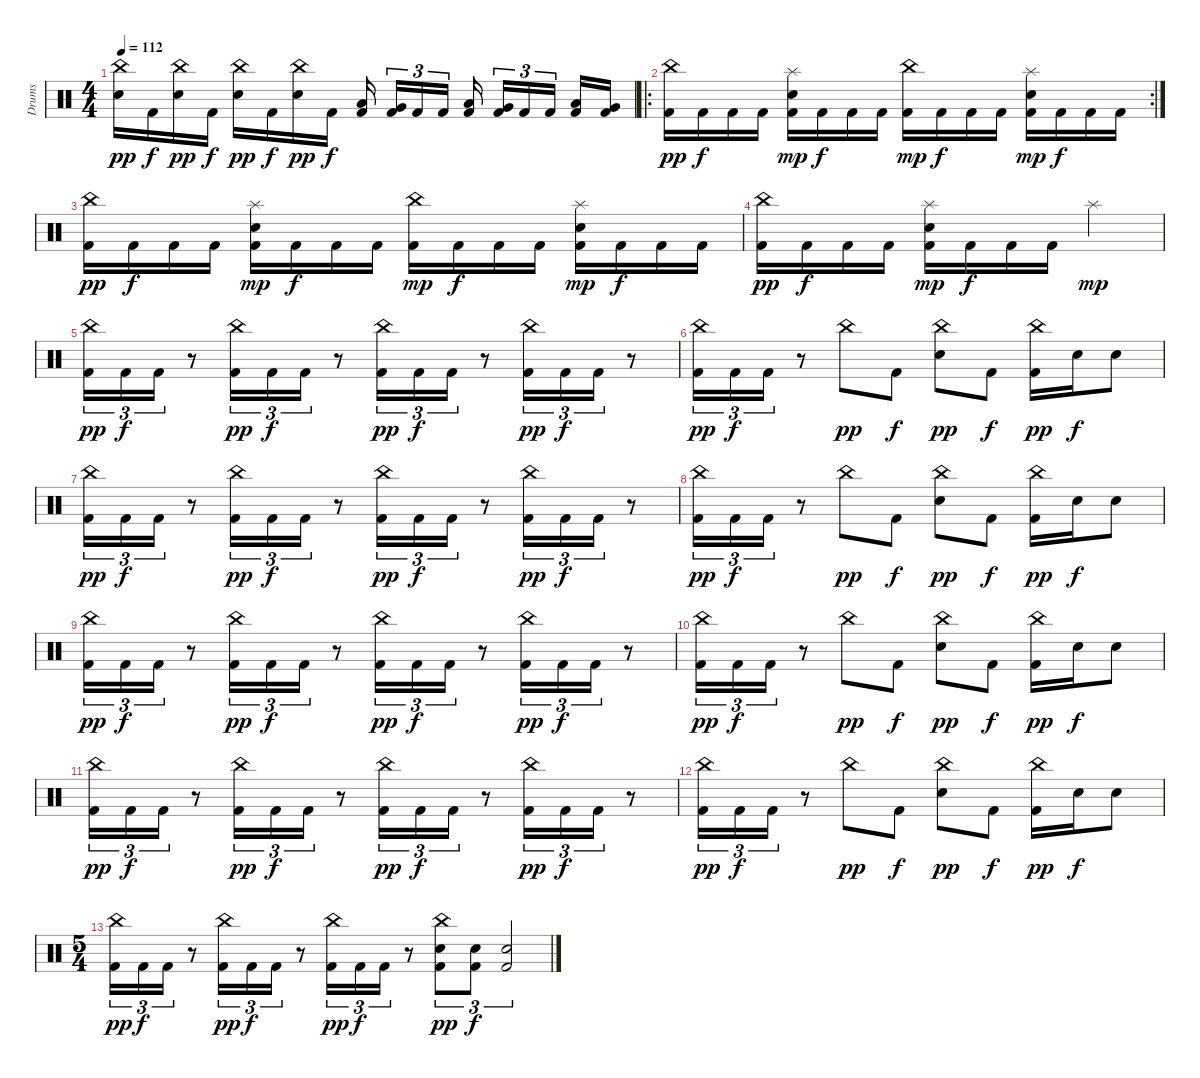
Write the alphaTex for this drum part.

\track ("Drums" "Drums") {instrument percussion}
\staff
\articulation defaults
\ts (4 4)
\tempo 112
\clef neutral
\ks c
("China (hit)" "Snare (hit) 2").16{dy pp} "Kick (hit) 2".16{dy f} ("China (hit)" "Snare (hit) 2").16{dy pp} "Kick (hit) 2".16{dy f} ("China (hit)" "Snare (hit) 2").16{dy pp} "Kick (hit) 2".16{dy f} ("China (hit)" "Snare (hit) 2").16{dy pp} "Kick (hit) 2".16{dy f} ("Low Floor Tom (hit)" "Kick (hit) 2").16{beam splitsecondary} ("Very Low Tom (hit)" "Kick (hit) 2").16{tu (3 2)} "Kick (hit) 2".16{tu (3 2)} "Kick (hit) 2".16{tu (3 2) beam splitsecondary} ("Low Floor Tom (hit)" "Kick (hit) 2").16 ("Very Low Tom (hit)" "Kick (hit) 2").16{tu (3 2)} "Kick (hit) 2".16{tu (3 2)} "Kick (hit) 2".16{tu (3 2) beam splitsecondary} ("Low Floor Tom (hit)" "Kick (hit) 2").16 ("Very Low Tom (hit)" "Kick (hit) 2").16 |
\ro
\rc 2
("China (hit)" "Kick (hit) 2").16{dy pp} "Kick (hit) 2".16{dy f} "Kick (hit) 2".16 "Kick (hit) 2".16 ("Splash (hit)" "Snare (hit) 2" "Kick (hit) 2").16{dy mp} "Kick (hit) 2".16{dy f} "Kick (hit) 2".16 "Kick (hit) 2".16 ("China (hit)" "Kick (hit) 2").16{dy mp} "Kick (hit) 2".16{dy f} "Kick (hit) 2".16 "Kick (hit) 2".16 ("Splash (hit)" "Snare (hit) 2" "Kick (hit) 2").16{dy mp} "Kick (hit) 2".16{dy f} "Kick (hit) 2".16 "Kick (hit) 2".16 |
("China (hit)" "Kick (hit) 2").16{dy pp} "Kick (hit) 2".16{dy f} "Kick (hit) 2".16 "Kick (hit) 2".16 ("Splash (hit)" "Snare (hit) 2" "Kick (hit) 2").16{dy mp} "Kick (hit) 2".16{dy f} "Kick (hit) 2".16 "Kick (hit) 2".16 ("China (hit)" "Kick (hit) 2").16{dy mp} "Kick (hit) 2".16{dy f} "Kick (hit) 2".16 "Kick (hit) 2".16 ("Splash (hit)" "Snare (hit) 2" "Kick (hit) 2").16{dy mp} "Kick (hit) 2".16{dy f} "Kick (hit) 2".16 "Kick (hit) 2".16 |
("China (hit)" "Kick (hit) 2").16{dy pp} "Kick (hit) 2".16{dy f} "Kick (hit) 2".16 "Kick (hit) 2".16 ("Splash (hit)" "Snare (hit) 2" "Kick (hit) 2").16{dy mp} "Kick (hit) 2".16{dy f} "Kick (hit) 2".16 "Kick (hit) 2".16 "Splash (hit)".2{dy mp} |
("China (hit)" "Kick (hit) 2").16{tu (3 2) dy pp} "Kick (hit) 2".16{tu (3 2) dy f} "Kick (hit) 2".16{tu (3 2)} r.8 ("China (hit)" "Kick (hit) 2").16{tu (3 2) dy pp} "Kick (hit) 2".16{tu (3 2) dy f} "Kick (hit) 2".16{tu (3 2)} r.8 ("China (hit)" "Kick (hit) 2").16{tu (3 2) dy pp} "Kick (hit) 2".16{tu (3 2) dy f} "Kick (hit) 2".16{tu (3 2)} r.8 ("China (hit)" "Kick (hit) 2").16{tu (3 2) dy pp} "Kick (hit) 2".16{tu (3 2) dy f} "Kick (hit) 2".16{tu (3 2)} r.8 |
("China (hit)" "Kick (hit) 2").16{tu (3 2) dy pp} "Kick (hit) 2".16{tu (3 2) dy f} "Kick (hit) 2".16{tu (3 2)} r.8 "China (hit)".8{dy pp} "Kick (hit) 2".8{dy f} ("China (hit)" "Snare (hit) 2").8{dy pp} "Kick (hit) 2".8{dy f} ("China (hit)" "Kick (hit) 2").16{dy pp} "Snare (hit) 2".16{dy f} "Snare (hit) 2".8 |
("China (hit)" "Kick (hit) 2").16{tu (3 2) dy pp} "Kick (hit) 2".16{tu (3 2) dy f} "Kick (hit) 2".16{tu (3 2)} r.8 ("China (hit)" "Kick (hit) 2").16{tu (3 2) dy pp} "Kick (hit) 2".16{tu (3 2) dy f} "Kick (hit) 2".16{tu (3 2)} r.8 ("China (hit)" "Kick (hit) 2").16{tu (3 2) dy pp} "Kick (hit) 2".16{tu (3 2) dy f} "Kick (hit) 2".16{tu (3 2)} r.8 ("China (hit)" "Kick (hit) 2").16{tu (3 2) dy pp} "Kick (hit) 2".16{tu (3 2) dy f} "Kick (hit) 2".16{tu (3 2)} r.8 |
("China (hit)" "Kick (hit) 2").16{tu (3 2) dy pp} "Kick (hit) 2".16{tu (3 2) dy f} "Kick (hit) 2".16{tu (3 2)} r.8 "China (hit)".8{dy pp} "Kick (hit) 2".8{dy f} ("China (hit)" "Snare (hit) 2").8{dy pp} "Kick (hit) 2".8{dy f} ("China (hit)" "Kick (hit) 2").16{dy pp} "Snare (hit) 2".16{dy f} "Snare (hit) 2".8 |
("China (hit)" "Kick (hit) 2").16{tu (3 2) dy pp} "Kick (hit) 2".16{tu (3 2) dy f} "Kick (hit) 2".16{tu (3 2)} r.8 ("China (hit)" "Kick (hit) 2").16{tu (3 2) dy pp} "Kick (hit) 2".16{tu (3 2) dy f} "Kick (hit) 2".16{tu (3 2)} r.8 ("China (hit)" "Kick (hit) 2").16{tu (3 2) dy pp} "Kick (hit) 2".16{tu (3 2) dy f} "Kick (hit) 2".16{tu (3 2)} r.8 ("China (hit)" "Kick (hit) 2").16{tu (3 2) dy pp} "Kick (hit) 2".16{tu (3 2) dy f} "Kick (hit) 2".16{tu (3 2)} r.8 |
("China (hit)" "Kick (hit) 2").16{tu (3 2) dy pp} "Kick (hit) 2".16{tu (3 2) dy f} "Kick (hit) 2".16{tu (3 2)} r.8 "China (hit)".8{dy pp} "Kick (hit) 2".8{dy f} ("China (hit)" "Snare (hit) 2").8{dy pp} "Kick (hit) 2".8{dy f} ("China (hit)" "Kick (hit) 2").16{dy pp} "Snare (hit) 2".16{dy f} "Snare (hit) 2".8 |
("China (hit)" "Kick (hit) 2").16{tu (3 2) dy pp} "Kick (hit) 2".16{tu (3 2) dy f} "Kick (hit) 2".16{tu (3 2)} r.8 ("China (hit)" "Kick (hit) 2").16{tu (3 2) dy pp} "Kick (hit) 2".16{tu (3 2) dy f} "Kick (hit) 2".16{tu (3 2)} r.8 ("China (hit)" "Kick (hit) 2").16{tu (3 2) dy pp} "Kick (hit) 2".16{tu (3 2) dy f} "Kick (hit) 2".16{tu (3 2)} r.8 ("China (hit)" "Kick (hit) 2").16{tu (3 2) dy pp} "Kick (hit) 2".16{tu (3 2) dy f} "Kick (hit) 2".16{tu (3 2)} r.8 |
("China (hit)" "Kick (hit) 2").16{tu (3 2) dy pp} "Kick (hit) 2".16{tu (3 2) dy f} "Kick (hit) 2".16{tu (3 2)} r.8 "China (hit)".8{dy pp} "Kick (hit) 2".8{dy f} ("China (hit)" "Snare (hit) 2").8{dy pp} "Kick (hit) 2".8{dy f} ("China (hit)" "Kick (hit) 2").16{dy pp} "Snare (hit) 2".16{dy f} "Snare (hit) 2".8 |
\ts (5 4)
("China (hit)" "Kick (hit) 2").16{tu (3 2) dy pp} "Kick (hit) 2".16{tu (3 2) dy f} "Kick (hit) 2".16{tu (3 2)} r.8 ("China (hit)" "Kick (hit) 2").16{tu (3 2) dy pp} "Kick (hit) 2".16{tu (3 2) dy f} "Kick (hit) 2".16{tu (3 2)} r.8 ("China (hit)" "Kick (hit) 2").16{tu (3 2) dy pp} "Kick (hit) 2".16{tu (3 2) dy f} "Kick (hit) 2".16{tu (3 2)} r.8 ("China (hit)" "Snare (hit) 2" "Kick (hit) 2").8{tu (3 2) dy pp} ("Snare (hit) 2" "Kick (hit) 2").8{tu (3 2) dy f} ("Snare (hit) 2" "Kick (hit) 2").2{tu (3 2)}
